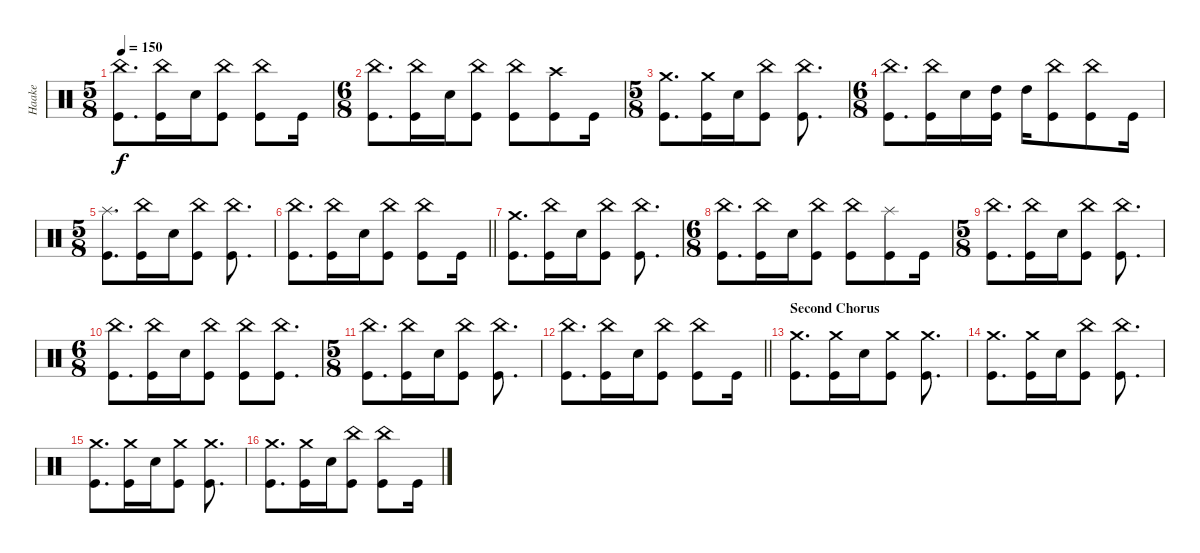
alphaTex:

\track ("Haake" "Haake") {instrument percussion}
\staff {score}
\articulation defaults
\ts (5 8)
\tempo 150
\clef neutral
\ks c
("China (hit)" "Kick (hit)").8{d dy f} ("China (hit)" "Kick (hit)").16 "Snare (hit) 2".16 ("China (hit)" "Kick (hit)").8 ("China (hit)" "Kick (hit)").8 "Kick (hit)".16 |
\ts (6 8)
("China (hit)" "Kick (hit)").8{d} ("China (hit)" "Kick (hit)").16 "Snare (hit) 2".16 ("China (hit)" "Kick (hit)").8 ("China (hit)" "Kick (hit)").8 ("Crash high (hit)" "Kick (hit)").8 "Kick (hit)".16 |
\ts (5 8)
("Crash medium (hit)" "Kick (hit)").8{d} ("Crash medium (hit)" "Kick (hit)").16 "Snare (hit) 2".16 ("China (hit)" "Kick (hit)").8 ("China (hit)" "Kick (hit)").8{d} |
\ts (6 8)
("China (hit)" "Kick (hit)").8{d} ("China (hit)" "Kick (hit)").16 "Snare (hit) 2".16 ("High Tom (hit)" "Kick (hit)").16 "High Tom (hit)".16 ("China (hit)" "Kick (hit)").8 ("China (hit)" "Kick (hit)").8 "Kick (hit)".16 |
\ts (5 8)
("Splash (hit)" "Kick (hit)").8{d} ("China (hit)" "Kick (hit)").16 "Snare (hit) 2".16 ("China (hit)" "Kick (hit)").8 ("China (hit)" "Kick (hit)").8{d} |
\barLineRight lightlight
("China (hit)" "Kick (hit)").8{d} ("China (hit)" "Kick (hit)").16 "Snare (hit) 2".16 ("China (hit)" "Kick (hit)").8 ("China (hit)" "Kick (hit)").8 "Kick (hit)".16 |
("Crash medium (hit)" "Kick (hit)").8{d} ("China (hit)" "Kick (hit)").16 "Snare (hit) 2".16 ("China (hit)" "Kick (hit)").8 ("China (hit)" "Kick (hit)").8{d} |
\ts (6 8)
("China (hit)" "Kick (hit)").8{d} ("China (hit)" "Kick (hit)").16 "Snare (hit) 2".16 ("China (hit)" "Kick (hit)").8 ("China (hit)" "Kick (hit)").8 ("Splash (hit)" "Kick (hit)").8 "Kick (hit)".16 |
\ts (5 8)
("China (hit)" "Kick (hit)").8{d} ("China (hit)" "Kick (hit)").16 "Snare (hit) 2".16 ("China (hit)" "Kick (hit)").8 ("China (hit)" "Kick (hit)").8{d} |
\ts (6 8)
("China (hit)" "Kick (hit)").8{d} ("China (hit)" "Kick (hit)").16 "Snare (hit) 2".16 ("China (hit)" "Kick (hit)").8 ("China (hit)" "Kick (hit)").8 ("China (hit)" "Kick (hit)").8{d} |
\ts (5 8)
("China (hit)" "Kick (hit)").8{d} ("China (hit)" "Kick (hit)").16 "Snare (hit) 2".16 ("China (hit)" "Kick (hit)").8 ("China (hit)" "Kick (hit)").8{d} |
\barLineRight lightlight
("China (hit)" "Kick (hit)").8{d} ("China (hit)" "Kick (hit)").16 "Snare (hit) 2".16 ("China (hit)" "Kick (hit)").8 ("China (hit)" "Kick (hit)").8 "Kick (hit)".16 |
\section ("" "Second Chorus")
("Crash medium (hit)" "Kick (hit)").8{d} ("Crash medium (hit)" "Kick (hit)").16 "Snare (hit) 2".16 ("Crash medium (hit)" "Kick (hit)").8 ("Crash medium (hit)" "Kick (hit)").8{d} |
("Crash medium (hit)" "Kick (hit)").8{d} ("Crash medium (hit)" "Kick (hit)").16 "Snare (hit) 2".16 ("China (hit)" "Kick (hit)").8 ("China (hit)" "Kick (hit)").8{d} |
("Crash medium (hit)" "Kick (hit)").8{d} ("Crash medium (hit)" "Kick (hit)").16 "Snare (hit) 2".16 ("Crash medium (hit)" "Kick (hit)").8 ("Crash medium (hit)" "Kick (hit)").8{d} |
("Crash medium (hit)" "Kick (hit)").8{d} ("Crash medium (hit)" "Kick (hit)").16 "Snare (hit) 2".16 ("China (hit)" "Kick (hit)").8 ("China (hit)" "Kick (hit)").8 "Kick (hit)".16
